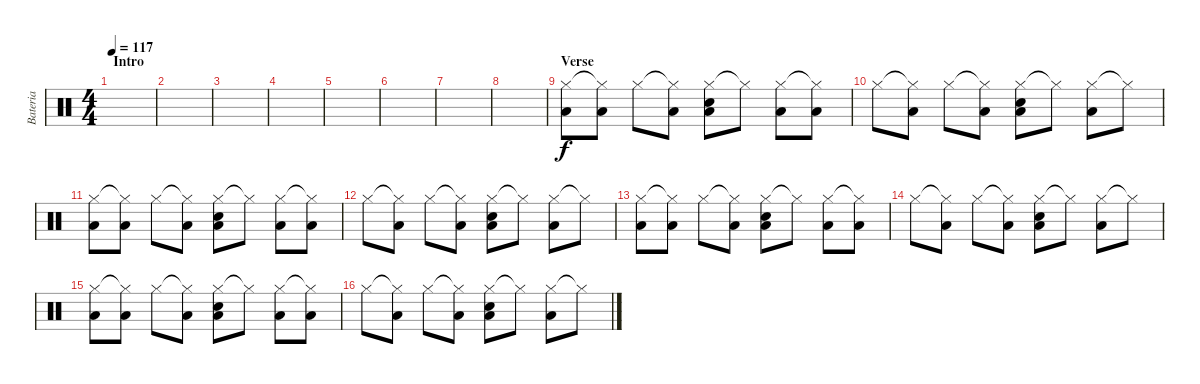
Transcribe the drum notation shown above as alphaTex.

\track ("Bateria" "Bateria") {instrument percussion}
\staff {score}
\articulation defaults
\ts (4 4)
\section ("" "Intro")
\tempo 117
\clef neutral
\ks c
|
|
|
|
|
|
|
|
\section ("" "Verse")
("Hi-Hat (closed)" "Low Tom (hit)").8 ("Hi-Hat (closed)"{t} "Low Tom (hit)").8 "Hi-Hat (closed)".8 ("Hi-Hat (closed)"{t} "Low Tom (hit)").8 ("Hi-Hat (closed)" "Snare (hit) 2" "Low Tom (hit)").8 "Hi-Hat (closed)"{t}.8 ("Hi-Hat (closed)" "Low Tom (hit)").8 ("Hi-Hat (closed)"{t} "Low Tom (hit)").8 |
"Hi-Hat (closed)".8 ("Hi-Hat (closed)"{t} "Low Tom (hit)").8 "Hi-Hat (closed)".8 ("Hi-Hat (closed)"{t} "Low Tom (hit)").8 ("Hi-Hat (closed)" "Snare (hit) 2" "Low Tom (hit)").8 "Hi-Hat (closed)"{t}.8 ("Hi-Hat (closed)" "Low Tom (hit)").8 "Hi-Hat (closed)"{t}.8 |
("Hi-Hat (closed)" "Low Tom (hit)").8 ("Hi-Hat (closed)"{t} "Low Tom (hit)").8 "Hi-Hat (closed)".8 ("Hi-Hat (closed)"{t} "Low Tom (hit)").8 ("Hi-Hat (closed)" "Snare (hit) 2" "Low Tom (hit)").8 "Hi-Hat (closed)"{t}.8 ("Hi-Hat (closed)" "Low Tom (hit)").8 ("Hi-Hat (closed)"{t} "Low Tom (hit)").8 |
"Hi-Hat (closed)".8 ("Hi-Hat (closed)"{t} "Low Tom (hit)").8 "Hi-Hat (closed)".8 ("Hi-Hat (closed)"{t} "Low Tom (hit)").8 ("Hi-Hat (closed)" "Snare (hit) 2" "Low Tom (hit)").8 "Hi-Hat (closed)"{t}.8 ("Hi-Hat (closed)" "Low Tom (hit)").8 "Hi-Hat (closed)"{t}.8 |
("Hi-Hat (closed)" "Low Tom (hit)").8 ("Hi-Hat (closed)"{t} "Low Tom (hit)").8 "Hi-Hat (closed)".8 ("Hi-Hat (closed)"{t} "Low Tom (hit)").8 ("Hi-Hat (closed)" "Snare (hit) 2" "Low Tom (hit)").8 "Hi-Hat (closed)"{t}.8 ("Hi-Hat (closed)" "Low Tom (hit)").8 ("Hi-Hat (closed)"{t} "Low Tom (hit)").8 |
"Hi-Hat (closed)".8 ("Hi-Hat (closed)"{t} "Low Tom (hit)").8 "Hi-Hat (closed)".8 ("Hi-Hat (closed)"{t} "Low Tom (hit)").8 ("Hi-Hat (closed)" "Snare (hit) 2" "Low Tom (hit)").8 "Hi-Hat (closed)"{t}.8 ("Hi-Hat (closed)" "Low Tom (hit)").8 "Hi-Hat (closed)"{t}.8 |
("Hi-Hat (closed)" "Low Tom (hit)").8 ("Hi-Hat (closed)"{t} "Low Tom (hit)").8 "Hi-Hat (closed)".8 ("Hi-Hat (closed)"{t} "Low Tom (hit)").8 ("Hi-Hat (closed)" "Snare (hit) 2" "Low Tom (hit)").8 "Hi-Hat (closed)"{t}.8 ("Hi-Hat (closed)" "Low Tom (hit)").8 ("Hi-Hat (closed)"{t} "Low Tom (hit)").8 |
"Hi-Hat (closed)".8 ("Hi-Hat (closed)"{t} "Low Tom (hit)").8 "Hi-Hat (closed)".8 ("Hi-Hat (closed)"{t} "Low Tom (hit)").8 ("Hi-Hat (closed)" "Snare (hit) 2" "Low Tom (hit)").8 "Hi-Hat (closed)"{t}.8 ("Hi-Hat (closed)" "Low Tom (hit)").8 "Hi-Hat (closed)"{t}.8
